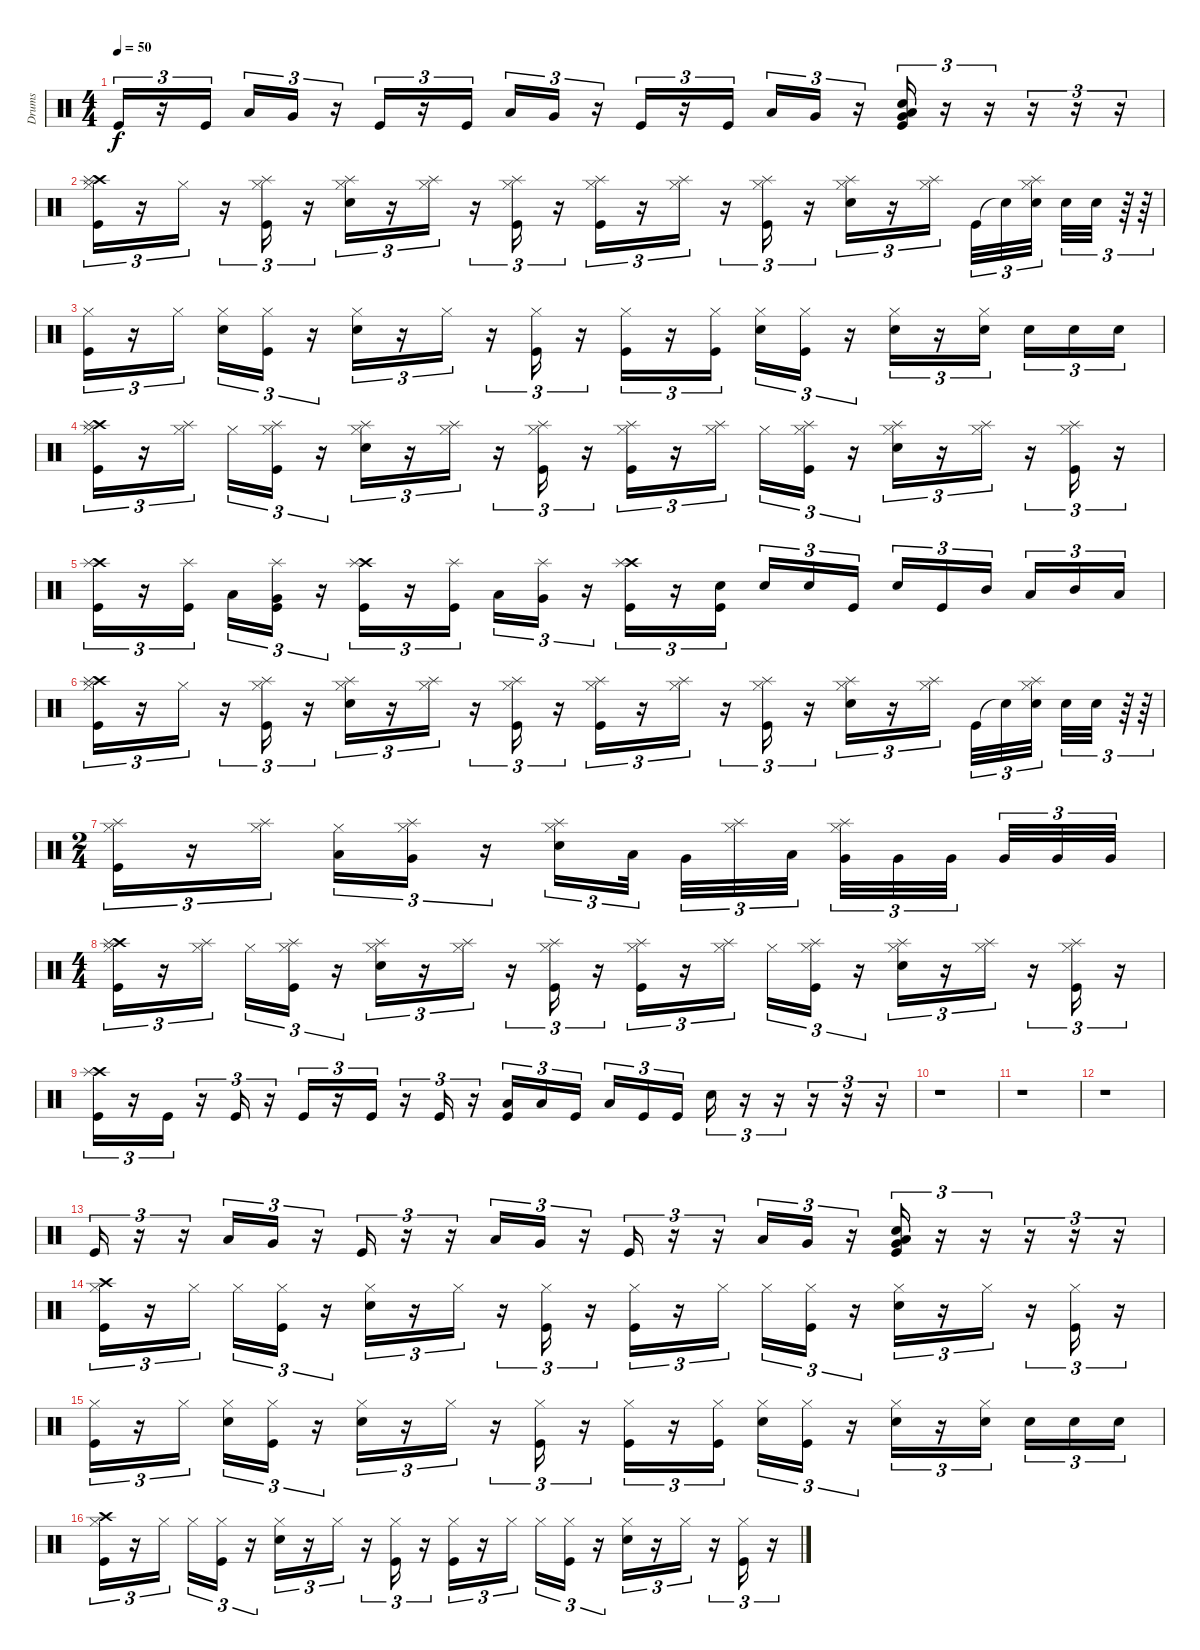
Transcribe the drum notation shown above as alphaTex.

\track ("Drums" "Drums") {instrument percussion}
\staff {score}
\articulation defaults
\ts (4 4)
\tempo 50
\clef neutral
\ks c "Kick (hit)".16{tu (3 2) dy f}
r.16{tu (3 2)} "Kick (hit)".16{tu (3 2)} "Low Tom (hit)".16{tu (3 2)} "Very Low Tom (hit)".16{tu (3 2)} r.16{tu (3 2)} "Kick (hit)".16{tu (3 2)} r.16{tu (3 2)} "Kick (hit)".16{tu (3 2)} "Low Tom (hit)".16{tu (3 2)} "Very Low Tom (hit)".16{tu (3 2)} r.16{tu (3 2)} "Kick (hit)".16{tu (3 2)} r.16{tu (3 2)} "Kick (hit)".16{tu (3 2)} "Low Tom (hit)".16{tu (3 2)} "Very Low Tom (hit)".16{tu (3 2)} r.16{tu (3 2)} ("Electric Snare (hit)" "Low Tom (hit)" "Very Low Tom (hit)" "Kick (hit)").16{tu (3 2)} r.16{tu (3 2)} r.16{tu (3 2)} r.16{tu (3 2)} r.16{tu (3 2)} r.16{tu (3 2)} |
("Hi-Hat (closed)" "Crash high (hit)" "Splash (hit)" "Kick (hit)").16{tu (3 2)} r.16{tu (3 2)} "Hi-Hat (closed)".16{tu (3 2)} r.16{tu (3 2)} ("Hi-Hat (closed)" "Splash (hit)" "Kick (hit)").16{tu (3 2)} r.16{tu (3 2)} ("Hi-Hat (closed)" "Splash (hit)" "Electric Snare (hit)").16{tu (3 2)} r.16{tu (3 2)} ("Hi-Hat (closed)" "Splash (hit)").16{tu (3 2)} r.16{tu (3 2)} ("Hi-Hat (closed)" "Splash (hit)" "Kick (hit)").16{tu (3 2)} r.16{tu (3 2)} ("Hi-Hat (closed)" "Splash (hit)" "Kick (hit)").16{tu (3 2)} r.16{tu (3 2)} ("Hi-Hat (closed)" "Splash (hit)").16{tu (3 2)} r.16{tu (3 2)} ("Hi-Hat (closed)" "Splash (hit)" "Kick (hit)").16{tu (3 2)} r.16{tu (3 2)} ("Hi-Hat (closed)" "Splash (hit)" "Electric Snare (hit)").16{tu (3 2)} r.16{tu (3 2)} ("Hi-Hat (closed)" "Splash (hit)").16{tu (3 2)} "Kick (hit)".32{tu (3 2)} "Snare (hit)"{t}.32{tu (3 2)} ("Hi-Hat (closed)" "Splash (hit)" "Electric Snare (hit)").32{tu (3 2)} "Snare (hit) 2".32{tu (3 2)} "Snare (hit) 2".32{tu (3 2)} r.64{tu (3 2)} r.64{tu (3 2)} |
("Hi-Hat (closed)" "Kick (hit)").16{tu (3 2)} r.16{tu (3 2)} "Hi-Hat (closed)".16{tu (3 2)} ("Hi-Hat (closed)" "Snare (hit) 2").16{tu (3 2)} ("Hi-Hat (closed)" "Kick (hit)").16{tu (3 2)} r.16{tu (3 2)} ("Hi-Hat (closed)" "Electric Snare (hit)").16{tu (3 2)} r.16{tu (3 2)} "Hi-Hat (closed)".16{tu (3 2)} r.16{tu (3 2)} ("Hi-Hat (closed)" "Kick (hit)").16{tu (3 2)} r.16{tu (3 2)} ("Hi-Hat (closed)" "Kick (hit)").16{tu (3 2)} r.16{tu (3 2)} ("Hi-Hat (closed)" "Kick (hit)").16{tu (3 2)} ("Hi-Hat (closed)" "Snare (hit) 2").16{tu (3 2)} ("Hi-Hat (closed)" "Kick (hit)").16{tu (3 2)} r.16{tu (3 2)} ("Hi-Hat (closed)" "Electric Snare (hit)").16{tu (3 2)} r.16{tu (3 2)} ("Hi-Hat (closed)" "Snare (hit) 2").16{tu (3 2)} "Snare (hit) 2".16{tu (3 2)} "Snare (hit) 2".16{tu (3 2)} "Snare (hit) 2".16{tu (3 2)} |
("Hi-Hat (closed)" "Crash high (hit)" "Splash (hit)" "Kick (hit)").16{tu (3 2)} r.16{tu (3 2)} ("Hi-Hat (closed)" "Splash (hit)").16{tu (3 2)} "Hi-Hat (closed)".16{tu (3 2)} ("Hi-Hat (closed)" "Splash (hit)" "Kick (hit)").16{tu (3 2)} r.16{tu (3 2)} ("Hi-Hat (closed)" "Splash (hit)" "Electric Snare (hit)").16{tu (3 2)} r.16{tu (3 2)} ("Hi-Hat (closed)" "Splash (hit)").16{tu (3 2)} r.16{tu (3 2)} ("Hi-Hat (closed)" "Splash (hit)" "Kick (hit)").16{tu (3 2)} r.16{tu (3 2)} ("Hi-Hat (closed)" "Splash (hit)" "Kick (hit)").16{tu (3 2)} r.16{tu (3 2)} ("Hi-Hat (closed)" "Splash (hit)").16{tu (3 2)} "Hi-Hat (closed)".16{tu (3 2)} ("Hi-Hat (closed)" "Splash (hit)" "Kick (hit)").16{tu (3 2)} r.16{tu (3 2)} ("Hi-Hat (closed)" "Splash (hit)" "Electric Snare (hit)").16{tu (3 2)} r.16{tu (3 2)} ("Hi-Hat (closed)" "Splash (hit)").16{tu (3 2)} r.16{tu (3 2)} ("Hi-Hat (closed)" "Splash (hit)" "Kick (hit)").16{tu (3 2)} r.16{tu (3 2)} |
("Crash high (hit)" "Splash (hit)" "Kick (hit)").16{tu (3 2)} r.16{tu (3 2)} ("Splash (hit)" "Kick (hit)").16{tu (3 2)} "Low Tom (hit)".16{tu (3 2)} ("Splash (hit)" "Very Low Tom (hit)" "Kick (hit)").16{tu (3 2)} r.16{tu (3 2)} ("Crash high (hit)" "Splash (hit)" "Kick (hit)").16{tu (3 2)} r.16{tu (3 2)} ("Splash (hit)" "Kick (hit)").16{tu (3 2)} "Low Tom (hit)".16{tu (3 2)} ("Splash (hit)" "Very Low Tom (hit)").16{tu (3 2)} r.16{tu (3 2)} ("Crash high (hit)" "Splash (hit)" "Kick (hit)").16{tu (3 2)} r.16{tu (3 2)} ("Snare (hit) 2" "Kick (hit)").16{tu (3 2)} "Snare (hit) 2".16{tu (3 2)} "Snare (hit) 2".16{tu (3 2)} "Kick (hit)".16{tu (3 2)} "Snare (hit) 2".16{tu (3 2)} "Kick (hit)".16{tu (3 2)} "Mid Tom (hit)".16{tu (3 2)} "Low Tom (hit)".16{tu (3 2)} "Mid Tom (hit)".16{tu (3 2)} "Low Tom (hit)".16{tu (3 2)} |
("Hi-Hat (closed)" "Crash high (hit)" "Splash (hit)" "Kick (hit)").16{tu (3 2)} r.16{tu (3 2)} "Hi-Hat (closed)".16{tu (3 2)} r.16{tu (3 2)} ("Hi-Hat (closed)" "Splash (hit)" "Kick (hit)").16{tu (3 2)} r.16{tu (3 2)} ("Hi-Hat (closed)" "Splash (hit)" "Electric Snare (hit)").16{tu (3 2)} r.16{tu (3 2)} ("Hi-Hat (closed)" "Splash (hit)").16{tu (3 2)} r.16{tu (3 2)} ("Hi-Hat (closed)" "Splash (hit)" "Kick (hit)").16{tu (3 2)} r.16{tu (3 2)} ("Hi-Hat (closed)" "Splash (hit)" "Kick (hit)").16{tu (3 2)} r.16{tu (3 2)} ("Hi-Hat (closed)" "Splash (hit)").16{tu (3 2)} r.16{tu (3 2)} ("Hi-Hat (closed)" "Splash (hit)" "Kick (hit)").16{tu (3 2)} r.16{tu (3 2)} ("Hi-Hat (closed)" "Splash (hit)" "Electric Snare (hit)").16{tu (3 2)} r.16{tu (3 2)} ("Hi-Hat (closed)" "Splash (hit)").16{tu (3 2)} "Kick (hit)".32{tu (3 2)} "Snare (hit)"{t}.32{tu (3 2)} ("Hi-Hat (closed)" "Splash (hit)" "Electric Snare (hit)").32{tu (3 2)} "Snare (hit) 2".32{tu (3 2)} "Snare (hit) 2".32{tu (3 2)} r.64{tu (3 2)} r.64{tu (3 2)} |
\ts (2 4)
("Hi-Hat (closed)" "Splash (hit)" "Kick (hit)").16{tu (3 2)} r.16{tu (3 2)} ("Hi-Hat (closed)" "Splash (hit)").16{tu (3 2)} ("Hi-Hat (closed)" "Low Tom (hit)").16{tu (3 2)} ("Hi-Hat (closed)" "Splash (hit)" "Very Low Tom (hit)").16{tu (3 2)} r.16{tu (3 2)} ("Hi-Hat (closed)" "Splash (hit)" "Electric Snare (hit)").16{tu (3 2)} "Low Tom (hit)".32{tu (3 2)} "Very Low Tom (hit)".32{tu (3 2)} ("Hi-Hat (closed)" "Splash (hit)").32{tu (3 2)} "Low Tom (hit)".32{tu (3 2)} ("Hi-Hat (closed)" "Splash (hit)" "Very Low Tom (hit)").32{tu (3 2)} "Very Low Tom (hit)".32{tu (3 2)} "Very Low Tom (hit)".32{tu (3 2)} "Very Low Tom (hit)".32{tu (3 2)} "Very Low Tom (hit)".32{tu (3 2)} "Very Low Tom (hit)".32{tu (3 2)} |
\ts (4 4)
("Hi-Hat (closed)" "Crash high (hit)" "Splash (hit)" "Kick (hit)").16{tu (3 2)} r.16{tu (3 2)} ("Hi-Hat (closed)" "Splash (hit)").16{tu (3 2)} "Hi-Hat (closed)".16{tu (3 2)} ("Hi-Hat (closed)" "Splash (hit)" "Kick (hit)").16{tu (3 2)} r.16{tu (3 2)} ("Hi-Hat (closed)" "Splash (hit)" "Electric Snare (hit)").16{tu (3 2)} r.16{tu (3 2)} ("Hi-Hat (closed)" "Splash (hit)").16{tu (3 2)} r.16{tu (3 2)} ("Hi-Hat (closed)" "Splash (hit)" "Kick (hit)").16{tu (3 2)} r.16{tu (3 2)} ("Hi-Hat (closed)" "Splash (hit)" "Kick (hit)").16{tu (3 2)} r.16{tu (3 2)} ("Hi-Hat (closed)" "Splash (hit)").16{tu (3 2)} "Hi-Hat (closed)".16{tu (3 2)} ("Hi-Hat (closed)" "Splash (hit)" "Kick (hit)").16{tu (3 2)} r.16{tu (3 2)} ("Hi-Hat (closed)" "Splash (hit)" "Electric Snare (hit)").16{tu (3 2)} r.16{tu (3 2)} ("Hi-Hat (closed)" "Splash (hit)").16{tu (3 2)} r.16{tu (3 2)} ("Hi-Hat (closed)" "Splash (hit)" "Kick (hit)").16{tu (3 2)} r.16{tu (3 2)} |
("Crash high (hit)" "Splash (hit)" "Kick (hit)").16{tu (3 2)} r.16{tu (3 2)} "Kick (hit)".16{tu (3 2)} r.16{tu (3 2)} "Kick (hit)".16{tu (3 2)} r.16{tu (3 2)} "Kick (hit)".16{tu (3 2)} r.16{tu (3 2)} "Kick (hit)".16{tu (3 2)} r.16{tu (3 2)} "Kick (hit)".16{tu (3 2)} r.16{tu (3 2)} ("Low Tom (hit)" "Kick (hit)").16{tu (3 2)} "Low Tom (hit)".16{tu (3 2)} "Kick (hit)".16{tu (3 2)} "Low Tom (hit)".16{tu (3 2)} "Kick (hit)".16{tu (3 2)} "Kick (hit)".16{tu (3 2)} "Snare (hit) 2".16{tu (3 2)} r.16{tu (3 2)} r.16{tu (3 2)} r.16{tu (3 2)} r.16{tu (3 2)} r.16{tu (3 2)} |
r.1 |
r.1 |
r.1 |
"Kick (hit)".16{tu (3 2)} r.16{tu (3 2)} r.16{tu (3 2)} "Low Tom (hit)".16{tu (3 2)} "Very Low Tom (hit)".16{tu (3 2)} r.16{tu (3 2)} "Kick (hit)".16{tu (3 2)} r.16{tu (3 2)} r.16{tu (3 2)} "Low Tom (hit)".16{tu (3 2)} "Very Low Tom (hit)".16{tu (3 2)} r.16{tu (3 2)} "Kick (hit)".16{tu (3 2)} r.16{tu (3 2)} r.16{tu (3 2)} "Low Tom (hit)".16{tu (3 2)} "Very Low Tom (hit)".16{tu (3 2)} r.16{tu (3 2)} ("Electric Snare (hit)" "Low Tom (hit)" "Very Low Tom (hit)" "Kick (hit)").16{tu (3 2)} r.16{tu (3 2)} r.16{tu (3 2)} r.16{tu (3 2)} r.16{tu (3 2)} r.16{tu (3 2)} |
("Hi-Hat (closed)" "Crash high (hit)" "Kick (hit)").16{tu (3 2)} r.16{tu (3 2)} "Hi-Hat (closed)".16{tu (3 2)} "Hi-Hat (closed)".16{tu (3 2)} ("Hi-Hat (closed)" "Kick (hit)").16{tu (3 2)} r.16{tu (3 2)} ("Hi-Hat (closed)" "Electric Snare (hit)").16{tu (3 2)} r.16{tu (3 2)} "Hi-Hat (closed)".16{tu (3 2)} r.16{tu (3 2)} ("Hi-Hat (closed)" "Kick (hit)").16{tu (3 2)} r.16{tu (3 2)} ("Hi-Hat (closed)" "Kick (hit)").16{tu (3 2)} r.16{tu (3 2)} "Hi-Hat (closed)".16{tu (3 2)} "Hi-Hat (closed)".16{tu (3 2)} ("Hi-Hat (closed)" "Kick (hit)").16{tu (3 2)} r.16{tu (3 2)} ("Hi-Hat (closed)" "Electric Snare (hit)").16{tu (3 2)} r.16{tu (3 2)} "Hi-Hat (closed)".16{tu (3 2)} r.16{tu (3 2)} ("Hi-Hat (closed)" "Kick (hit)").16{tu (3 2)} r.16{tu (3 2)} |
("Hi-Hat (closed)" "Kick (hit)").16{tu (3 2)} r.16{tu (3 2)} "Hi-Hat (closed)".16{tu (3 2)} ("Hi-Hat (closed)" "Snare (hit) 2").16{tu (3 2)} ("Hi-Hat (closed)" "Kick (hit)").16{tu (3 2)} r.16{tu (3 2)} ("Hi-Hat (closed)" "Electric Snare (hit)").16{tu (3 2)} r.16{tu (3 2)} "Hi-Hat (closed)".16{tu (3 2)} r.16{tu (3 2)} ("Hi-Hat (closed)" "Kick (hit)").16{tu (3 2)} r.16{tu (3 2)} ("Hi-Hat (closed)" "Kick (hit)").16{tu (3 2)} r.16{tu (3 2)} ("Hi-Hat (closed)" "Kick (hit)").16{tu (3 2)} ("Hi-Hat (closed)" "Snare (hit) 2").16{tu (3 2)} ("Hi-Hat (closed)" "Kick (hit)").16{tu (3 2)} r.16{tu (3 2)} ("Hi-Hat (closed)" "Electric Snare (hit)").16{tu (3 2)} r.16{tu (3 2)} ("Hi-Hat (closed)" "Snare (hit) 2").16{tu (3 2)} "Snare (hit) 2".16{tu (3 2)} "Snare (hit) 2".16{tu (3 2)} "Snare (hit) 2".16{tu (3 2)} |
("Hi-Hat (closed)" "Crash high (hit)" "Kick (hit)").16{tu (3 2)} r.16{tu (3 2)} "Hi-Hat (closed)".16{tu (3 2)} "Hi-Hat (closed)".16{tu (3 2)} ("Hi-Hat (closed)" "Kick (hit)").16{tu (3 2)} r.16{tu (3 2)} ("Hi-Hat (closed)" "Electric Snare (hit)").16{tu (3 2)} r.16{tu (3 2)} "Hi-Hat (closed)".16{tu (3 2)} r.16{tu (3 2)} ("Hi-Hat (closed)" "Kick (hit)").16{tu (3 2)} r.16{tu (3 2)} ("Hi-Hat (closed)" "Kick (hit)").16{tu (3 2)} r.16{tu (3 2)} "Hi-Hat (closed)".16{tu (3 2)} "Hi-Hat (closed)".16{tu (3 2)} ("Hi-Hat (closed)" "Kick (hit)").16{tu (3 2)} r.16{tu (3 2)} ("Hi-Hat (closed)" "Electric Snare (hit)").16{tu (3 2)} r.16{tu (3 2)} "Hi-Hat (closed)".16{tu (3 2)} r.16{tu (3 2)} ("Hi-Hat (closed)" "Kick (hit)").16{tu (3 2)} r.16{tu (3 2)}
